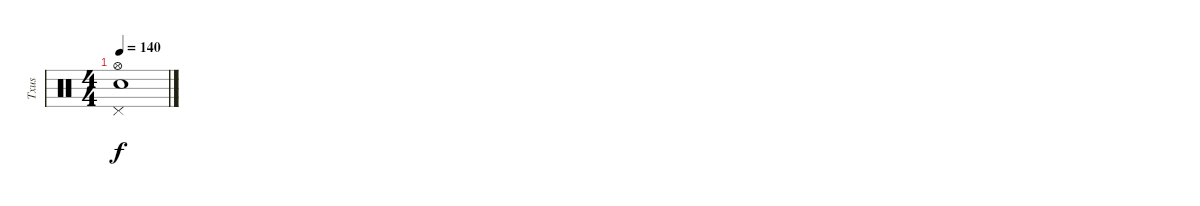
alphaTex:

\track ("Txus" "Txus") {instrument percussion}
\staff {score}
\articulation defaults
\ts (4 4)
\tempo 140
\clef neutral
\ks c
("Pedal Hi-Hat (hit)" "Snare (hit) 2" "Hi-Hat (open)").1{dy f}
